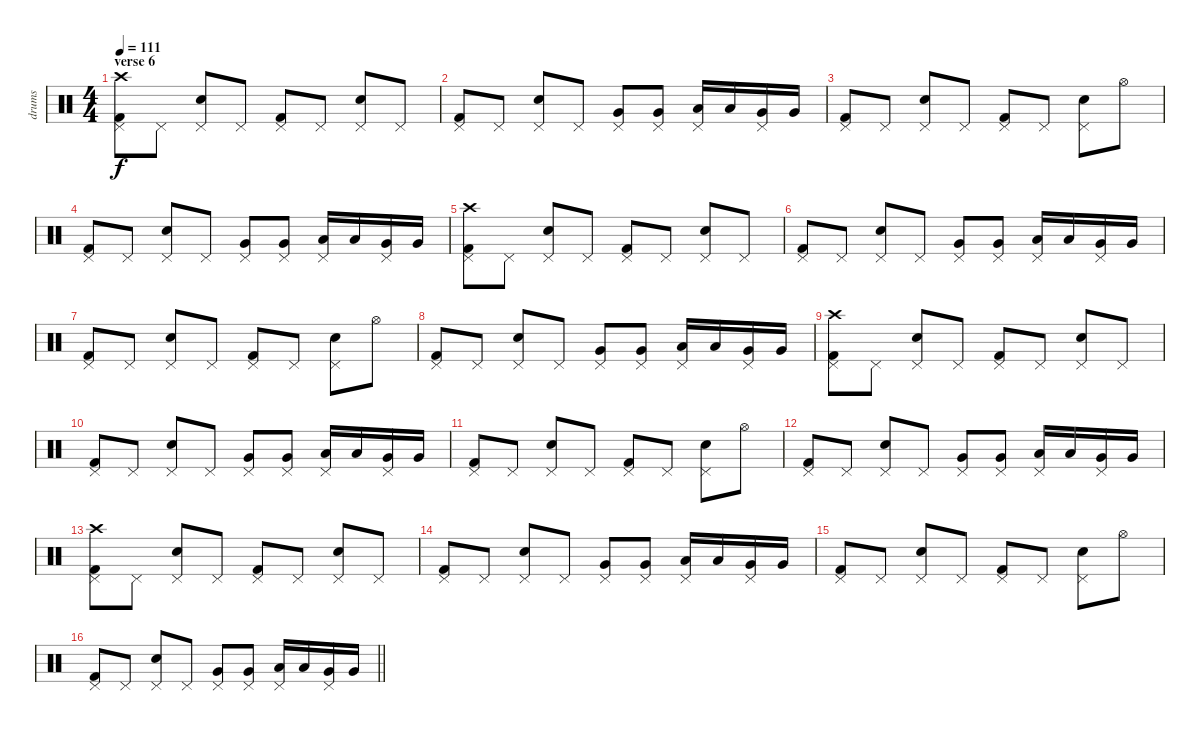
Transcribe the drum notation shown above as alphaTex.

\track ("drums" "drums") {instrument percussion}
\staff {score}
\articulation defaults
\ts (4 4)
\section ("" "verse 6")
\tempo 111
\clef neutral
\ks c
("Kick (hit) 2" "Pedal Hi-Hat (hit)" "Crash high (hit)").8{dy f} "Pedal Hi-Hat (hit)".8 ("Electric Snare (hit)" "Pedal Hi-Hat (hit)").8 "Pedal Hi-Hat (hit)".8 ("Kick (hit) 2" "Pedal Hi-Hat (hit)").8 "Pedal Hi-Hat (hit)".8 ("Electric Snare (hit)" "Pedal Hi-Hat (hit)").8 "Pedal Hi-Hat (hit)".8 |
("Kick (hit) 2" "Pedal Hi-Hat (hit)").8 "Pedal Hi-Hat (hit)".8 ("Electric Snare (hit)" "Pedal Hi-Hat (hit)").8 "Pedal Hi-Hat (hit)".8 ("Very Low Tom (hit)" "Pedal Hi-Hat (hit)").8 ("Very Low Tom (hit)" "Pedal Hi-Hat (hit)").8 ("Low Floor Tom (hit)" "Pedal Hi-Hat (hit)").16 "Low Floor Tom (hit)".16 ("Very Low Tom (hit)" "Pedal Hi-Hat (hit)").16 "Very Low Tom (hit)".16 |
("Kick (hit) 2" "Pedal Hi-Hat (hit)").8 "Pedal Hi-Hat (hit)".8 ("Electric Snare (hit)" "Pedal Hi-Hat (hit)").8 "Pedal Hi-Hat (hit)".8 ("Kick (hit) 2" "Pedal Hi-Hat (hit)").8 "Pedal Hi-Hat (hit)".8 ("Electric Snare (hit)" "Pedal Hi-Hat (hit)").8 "Hi-Hat (open)".8 |
("Kick (hit) 2" "Pedal Hi-Hat (hit)").8 "Pedal Hi-Hat (hit)".8 ("Electric Snare (hit)" "Pedal Hi-Hat (hit)").8 "Pedal Hi-Hat (hit)".8 ("Very Low Tom (hit)" "Pedal Hi-Hat (hit)").8 ("Very Low Tom (hit)" "Pedal Hi-Hat (hit)").8 ("Low Floor Tom (hit)" "Pedal Hi-Hat (hit)").16 "Low Floor Tom (hit)".16 ("Very Low Tom (hit)" "Pedal Hi-Hat (hit)").16 "Very Low Tom (hit)".16 |
("Kick (hit) 2" "Pedal Hi-Hat (hit)" "Crash high (hit)").8 "Pedal Hi-Hat (hit)".8 ("Electric Snare (hit)" "Pedal Hi-Hat (hit)").8 "Pedal Hi-Hat (hit)".8 ("Kick (hit) 2" "Pedal Hi-Hat (hit)").8 "Pedal Hi-Hat (hit)".8 ("Electric Snare (hit)" "Pedal Hi-Hat (hit)").8 "Pedal Hi-Hat (hit)".8 |
("Kick (hit) 2" "Pedal Hi-Hat (hit)").8 "Pedal Hi-Hat (hit)".8 ("Electric Snare (hit)" "Pedal Hi-Hat (hit)").8 "Pedal Hi-Hat (hit)".8 ("Very Low Tom (hit)" "Pedal Hi-Hat (hit)").8 ("Very Low Tom (hit)" "Pedal Hi-Hat (hit)").8 ("Low Floor Tom (hit)" "Pedal Hi-Hat (hit)").16 "Low Floor Tom (hit)".16 ("Very Low Tom (hit)" "Pedal Hi-Hat (hit)").16 "Very Low Tom (hit)".16 |
("Kick (hit) 2" "Pedal Hi-Hat (hit)").8 "Pedal Hi-Hat (hit)".8 ("Electric Snare (hit)" "Pedal Hi-Hat (hit)").8 "Pedal Hi-Hat (hit)".8 ("Kick (hit) 2" "Pedal Hi-Hat (hit)").8 "Pedal Hi-Hat (hit)".8 ("Electric Snare (hit)" "Pedal Hi-Hat (hit)").8 "Hi-Hat (open)".8 |
("Kick (hit) 2" "Pedal Hi-Hat (hit)").8 "Pedal Hi-Hat (hit)".8 ("Electric Snare (hit)" "Pedal Hi-Hat (hit)").8 "Pedal Hi-Hat (hit)".8 ("Very Low Tom (hit)" "Pedal Hi-Hat (hit)").8 ("Very Low Tom (hit)" "Pedal Hi-Hat (hit)").8 ("Low Floor Tom (hit)" "Pedal Hi-Hat (hit)").16 "Low Floor Tom (hit)".16 ("Very Low Tom (hit)" "Pedal Hi-Hat (hit)").16 "Very Low Tom (hit)".16 |
("Kick (hit) 2" "Pedal Hi-Hat (hit)" "Crash high (hit)").8 "Pedal Hi-Hat (hit)".8 ("Electric Snare (hit)" "Pedal Hi-Hat (hit)").8 "Pedal Hi-Hat (hit)".8 ("Kick (hit) 2" "Pedal Hi-Hat (hit)").8 "Pedal Hi-Hat (hit)".8 ("Electric Snare (hit)" "Pedal Hi-Hat (hit)").8 "Pedal Hi-Hat (hit)".8 |
("Kick (hit) 2" "Pedal Hi-Hat (hit)").8 "Pedal Hi-Hat (hit)".8 ("Electric Snare (hit)" "Pedal Hi-Hat (hit)").8 "Pedal Hi-Hat (hit)".8 ("Very Low Tom (hit)" "Pedal Hi-Hat (hit)").8 ("Very Low Tom (hit)" "Pedal Hi-Hat (hit)").8 ("Low Floor Tom (hit)" "Pedal Hi-Hat (hit)").16 "Low Floor Tom (hit)".16 ("Very Low Tom (hit)" "Pedal Hi-Hat (hit)").16 "Very Low Tom (hit)".16 |
("Kick (hit) 2" "Pedal Hi-Hat (hit)").8 "Pedal Hi-Hat (hit)".8 ("Electric Snare (hit)" "Pedal Hi-Hat (hit)").8 "Pedal Hi-Hat (hit)".8 ("Kick (hit) 2" "Pedal Hi-Hat (hit)").8 "Pedal Hi-Hat (hit)".8 ("Electric Snare (hit)" "Pedal Hi-Hat (hit)").8 "Hi-Hat (open)".8 |
("Kick (hit) 2" "Pedal Hi-Hat (hit)").8 "Pedal Hi-Hat (hit)".8 ("Electric Snare (hit)" "Pedal Hi-Hat (hit)").8 "Pedal Hi-Hat (hit)".8 ("Very Low Tom (hit)" "Pedal Hi-Hat (hit)").8 ("Very Low Tom (hit)" "Pedal Hi-Hat (hit)").8 ("Low Floor Tom (hit)" "Pedal Hi-Hat (hit)").16 "Low Floor Tom (hit)".16 ("Very Low Tom (hit)" "Pedal Hi-Hat (hit)").16 "Very Low Tom (hit)".16 |
("Kick (hit) 2" "Pedal Hi-Hat (hit)" "Crash high (hit)").8 "Pedal Hi-Hat (hit)".8 ("Electric Snare (hit)" "Pedal Hi-Hat (hit)").8 "Pedal Hi-Hat (hit)".8 ("Kick (hit) 2" "Pedal Hi-Hat (hit)").8 "Pedal Hi-Hat (hit)".8 ("Electric Snare (hit)" "Pedal Hi-Hat (hit)").8 "Pedal Hi-Hat (hit)".8 |
("Kick (hit) 2" "Pedal Hi-Hat (hit)").8 "Pedal Hi-Hat (hit)".8 ("Electric Snare (hit)" "Pedal Hi-Hat (hit)").8 "Pedal Hi-Hat (hit)".8 ("Very Low Tom (hit)" "Pedal Hi-Hat (hit)").8 ("Very Low Tom (hit)" "Pedal Hi-Hat (hit)").8 ("Low Floor Tom (hit)" "Pedal Hi-Hat (hit)").16 "Low Floor Tom (hit)".16 ("Very Low Tom (hit)" "Pedal Hi-Hat (hit)").16 "Very Low Tom (hit)".16 |
("Kick (hit) 2" "Pedal Hi-Hat (hit)").8 "Pedal Hi-Hat (hit)".8 ("Electric Snare (hit)" "Pedal Hi-Hat (hit)").8 "Pedal Hi-Hat (hit)".8 ("Kick (hit) 2" "Pedal Hi-Hat (hit)").8 "Pedal Hi-Hat (hit)".8 ("Electric Snare (hit)" "Pedal Hi-Hat (hit)").8 "Hi-Hat (open)".8 |
\barLineRight lightlight
("Kick (hit) 2" "Pedal Hi-Hat (hit)").8 "Pedal Hi-Hat (hit)".8 ("Electric Snare (hit)" "Pedal Hi-Hat (hit)").8 "Pedal Hi-Hat (hit)".8 ("Very Low Tom (hit)" "Pedal Hi-Hat (hit)").8 ("Very Low Tom (hit)" "Pedal Hi-Hat (hit)").8 ("Low Floor Tom (hit)" "Pedal Hi-Hat (hit)").16 "Low Floor Tom (hit)".16 ("Very Low Tom (hit)" "Pedal Hi-Hat (hit)").16 "Very Low Tom (hit)".16
